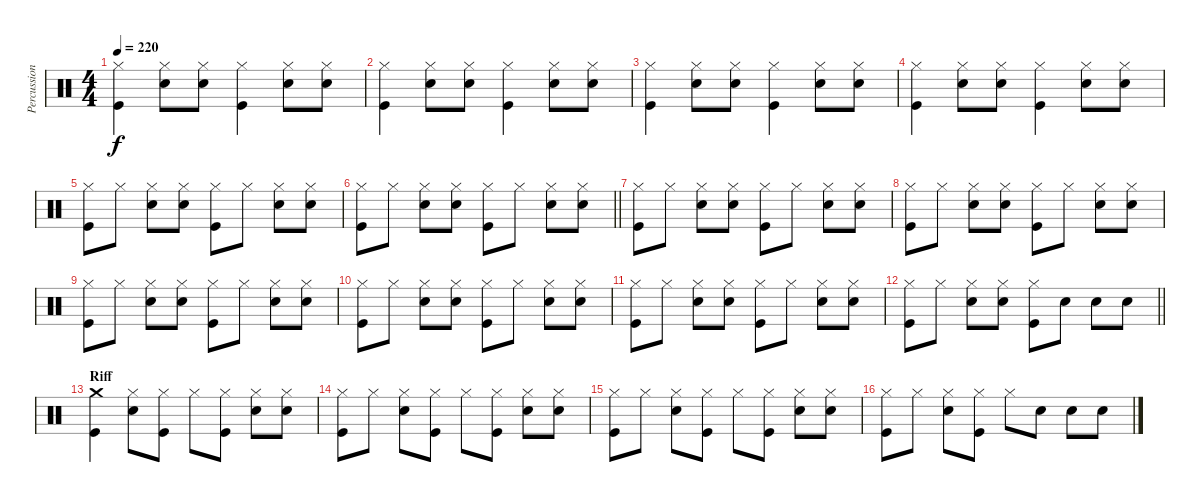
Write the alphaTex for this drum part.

\track ("Percussion" "Percussion") {instrument percussion}
\staff {score}
\articulation defaults
\ts (4 4)
\tempo 220
\clef neutral
\ks c
("Kick (hit)" "Hi-Hat (closed)").4{dy f} ("Hi-Hat (closed)" "Snare (hit) 2").8 ("Hi-Hat (closed)" "Snare (hit) 2").8 ("Kick (hit)" "Hi-Hat (closed)").4 ("Hi-Hat (closed)" "Snare (hit) 2").8 ("Hi-Hat (closed)" "Snare (hit) 2").8 |
("Kick (hit)" "Hi-Hat (closed)").4 ("Hi-Hat (closed)" "Snare (hit) 2").8 ("Hi-Hat (closed)" "Snare (hit) 2").8 ("Kick (hit)" "Hi-Hat (closed)").4 ("Hi-Hat (closed)" "Snare (hit) 2").8 ("Hi-Hat (closed)" "Snare (hit) 2").8 |
("Kick (hit)" "Hi-Hat (closed)").4 ("Hi-Hat (closed)" "Snare (hit) 2").8 ("Hi-Hat (closed)" "Snare (hit) 2").8 ("Kick (hit)" "Hi-Hat (closed)").4 ("Hi-Hat (closed)" "Snare (hit) 2").8 ("Hi-Hat (closed)" "Snare (hit) 2").8 |
("Kick (hit)" "Hi-Hat (closed)").4 ("Hi-Hat (closed)" "Snare (hit) 2").8 ("Hi-Hat (closed)" "Snare (hit) 2").8 ("Kick (hit)" "Hi-Hat (closed)").4 ("Hi-Hat (closed)" "Snare (hit) 2").8 ("Hi-Hat (closed)" "Snare (hit) 2").8 |
("Kick (hit)" "Hi-Hat (closed)").8 "Hi-Hat (closed)".8 ("Hi-Hat (closed)" "Snare (hit) 2").8 ("Hi-Hat (closed)" "Snare (hit) 2").8 ("Kick (hit)" "Hi-Hat (closed)").8 "Hi-Hat (closed)".8 ("Hi-Hat (closed)" "Snare (hit) 2").8 ("Hi-Hat (closed)" "Snare (hit) 2").8 |
\barLineRight lightlight
("Kick (hit)" "Hi-Hat (closed)").8 "Hi-Hat (closed)".8 ("Hi-Hat (closed)" "Snare (hit) 2").8 ("Hi-Hat (closed)" "Snare (hit) 2").8 ("Kick (hit)" "Hi-Hat (closed)").8 "Hi-Hat (closed)".8 ("Hi-Hat (closed)" "Snare (hit) 2").8 ("Hi-Hat (closed)" "Snare (hit) 2").8 |
("Kick (hit)" "Hi-Hat (closed)").8 "Hi-Hat (closed)".8 ("Hi-Hat (closed)" "Snare (hit) 2").8 ("Hi-Hat (closed)" "Snare (hit) 2").8 ("Kick (hit)" "Hi-Hat (closed)").8 "Hi-Hat (closed)".8 ("Hi-Hat (closed)" "Snare (hit) 2").8 ("Hi-Hat (closed)" "Snare (hit) 2").8 |
("Kick (hit)" "Hi-Hat (closed)").8 "Hi-Hat (closed)".8 ("Hi-Hat (closed)" "Snare (hit) 2").8 ("Hi-Hat (closed)" "Snare (hit) 2").8 ("Kick (hit)" "Hi-Hat (closed)").8 "Hi-Hat (closed)".8 ("Hi-Hat (closed)" "Snare (hit) 2").8 ("Hi-Hat (closed)" "Snare (hit) 2").8 |
("Kick (hit)" "Hi-Hat (closed)").8 "Hi-Hat (closed)".8 ("Hi-Hat (closed)" "Snare (hit) 2").8 ("Hi-Hat (closed)" "Snare (hit) 2").8 ("Kick (hit)" "Hi-Hat (closed)").8 "Hi-Hat (closed)".8 ("Hi-Hat (closed)" "Snare (hit) 2").8 ("Hi-Hat (closed)" "Snare (hit) 2").8 |
("Kick (hit)" "Hi-Hat (closed)").8 "Hi-Hat (closed)".8 ("Hi-Hat (closed)" "Snare (hit) 2").8 ("Hi-Hat (closed)" "Snare (hit) 2").8 ("Kick (hit)" "Hi-Hat (closed)").8 "Hi-Hat (closed)".8 ("Hi-Hat (closed)" "Snare (hit) 2").8 ("Hi-Hat (closed)" "Snare (hit) 2").8 |
("Kick (hit)" "Hi-Hat (closed)").8 "Hi-Hat (closed)".8 ("Hi-Hat (closed)" "Snare (hit) 2").8 ("Hi-Hat (closed)" "Snare (hit) 2").8 ("Kick (hit)" "Hi-Hat (closed)").8 "Hi-Hat (closed)".8 ("Hi-Hat (closed)" "Snare (hit) 2").8 ("Hi-Hat (closed)" "Snare (hit) 2").8 |
\barLineRight lightlight
("Kick (hit)" "Hi-Hat (closed)").8 "Hi-Hat (closed)".8 ("Hi-Hat (closed)" "Snare (hit) 2").8 ("Hi-Hat (closed)" "Snare (hit) 2").8 ("Kick (hit)" "Hi-Hat (closed)").8 "Snare (hit) 2".8 "Snare (hit) 2".8 "Snare (hit) 2".8 |
\section ("" "Riff")
("Kick (hit)" "Crash medium (hit)").4 ("Hi-Hat (closed)" "Snare (hit) 2").8 ("Kick (hit)" "Hi-Hat (closed)").8 "Hi-Hat (closed)".8 ("Kick (hit)" "Hi-Hat (closed)").8 ("Hi-Hat (closed)" "Snare (hit) 2").8 ("Hi-Hat (closed)" "Snare (hit) 2").8 |
("Kick (hit)" "Hi-Hat (closed)").8 "Hi-Hat (closed)".8 ("Hi-Hat (closed)" "Snare (hit) 2").8 ("Kick (hit)" "Hi-Hat (closed)").8 "Hi-Hat (closed)".8 ("Kick (hit)" "Hi-Hat (closed)").8 ("Hi-Hat (closed)" "Snare (hit) 2").8 ("Hi-Hat (closed)" "Snare (hit) 2").8 |
("Kick (hit)" "Hi-Hat (closed)").8 "Hi-Hat (closed)".8 ("Hi-Hat (closed)" "Snare (hit) 2").8 ("Kick (hit)" "Hi-Hat (closed)").8 "Hi-Hat (closed)".8 ("Kick (hit)" "Hi-Hat (closed)").8 ("Hi-Hat (closed)" "Snare (hit) 2").8 ("Hi-Hat (closed)" "Snare (hit) 2").8 |
("Kick (hit)" "Hi-Hat (closed)").8 "Hi-Hat (closed)".8 ("Hi-Hat (closed)" "Snare (hit) 2").8 ("Kick (hit)" "Hi-Hat (closed)").8 "Hi-Hat (closed)".8 "Snare (hit) 2".8 "Snare (hit) 2".8 "Snare (hit) 2".8
